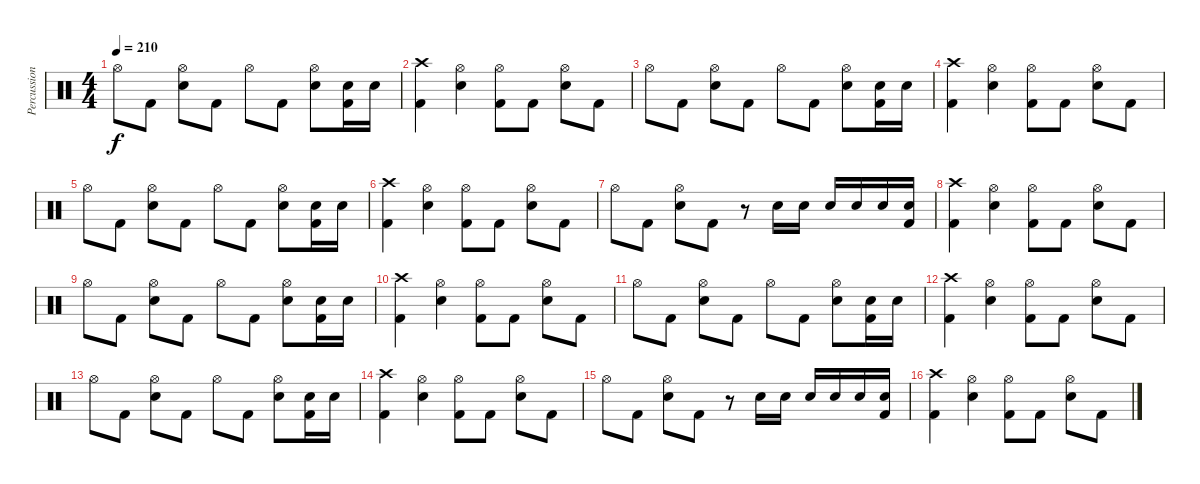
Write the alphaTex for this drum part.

\track ("Percussions" "Percussion") {instrument percussion}
\staff {score}
\articulation defaults
\ts (4 4)
\tempo 210
\clef neutral
\ks c "Hi-Hat (open)".8{dy f} "Kick (hit) 2".8
("Snare (hit) 2" "Hi-Hat (open)").8 "Kick (hit) 2".8 "Hi-Hat (open)".8 "Kick (hit) 2".8 ("Snare (hit) 2" "Hi-Hat (open)").8 ("Kick (hit) 2" "Snare (hit) 2").16 "Snare (hit) 2".16 |
("Kick (hit) 2" "Crash high (hit)").4 ("Snare (hit) 2" "Hi-Hat (open)").4 ("Kick (hit) 2" "Hi-Hat (open)").8 "Kick (hit) 2".8 ("Snare (hit) 2" "Hi-Hat (open)").8 "Kick (hit) 2".8 |
"Hi-Hat (open)".8 "Kick (hit) 2".8 ("Snare (hit) 2" "Hi-Hat (open)").8 "Kick (hit) 2".8 "Hi-Hat (open)".8 "Kick (hit) 2".8 ("Snare (hit) 2" "Hi-Hat (open)").8 ("Kick (hit) 2" "Snare (hit) 2").16 "Snare (hit) 2".16 |
("Kick (hit) 2" "Crash high (hit)").4 ("Snare (hit) 2" "Hi-Hat (open)").4 ("Kick (hit) 2" "Hi-Hat (open)").8 "Kick (hit) 2".8 ("Snare (hit) 2" "Hi-Hat (open)").8 "Kick (hit) 2".8 |
"Hi-Hat (open)".8 "Kick (hit) 2".8 ("Snare (hit) 2" "Hi-Hat (open)").8 "Kick (hit) 2".8 "Hi-Hat (open)".8 "Kick (hit) 2".8 ("Snare (hit) 2" "Hi-Hat (open)").8 ("Kick (hit) 2" "Snare (hit) 2").16 "Snare (hit) 2".16 |
("Kick (hit) 2" "Crash high (hit)").4 ("Snare (hit) 2" "Hi-Hat (open)").4 ("Kick (hit) 2" "Hi-Hat (open)").8 "Kick (hit) 2".8 ("Snare (hit) 2" "Hi-Hat (open)").8 "Kick (hit) 2".8 |
"Hi-Hat (open)".8 "Kick (hit) 2".8 ("Snare (hit) 2" "Hi-Hat (open)").8 "Kick (hit) 2".8 r.8 "Snare (hit) 2".16 "Snare (hit) 2".16 "Snare (hit) 2".16 "Snare (hit) 2".16 "Snare (hit) 2".16 ("Kick (hit) 2" "Snare (hit) 2").16 |
("Kick (hit) 2" "Crash high (hit)").4 ("Snare (hit) 2" "Hi-Hat (open)").4 ("Kick (hit) 2" "Hi-Hat (open)").8 "Kick (hit) 2".8 ("Snare (hit) 2" "Hi-Hat (open)").8 "Kick (hit) 2".8 |
"Hi-Hat (open)".8 "Kick (hit) 2".8 ("Snare (hit) 2" "Hi-Hat (open)").8 "Kick (hit) 2".8 "Hi-Hat (open)".8 "Kick (hit) 2".8 ("Snare (hit) 2" "Hi-Hat (open)").8 ("Kick (hit) 2" "Snare (hit) 2").16 "Snare (hit) 2".16 |
("Kick (hit) 2" "Crash high (hit)").4 ("Snare (hit) 2" "Hi-Hat (open)").4 ("Kick (hit) 2" "Hi-Hat (open)").8 "Kick (hit) 2".8 ("Snare (hit) 2" "Hi-Hat (open)").8 "Kick (hit) 2".8 |
"Hi-Hat (open)".8 "Kick (hit) 2".8 ("Snare (hit) 2" "Hi-Hat (open)").8 "Kick (hit) 2".8 "Hi-Hat (open)".8 "Kick (hit) 2".8 ("Snare (hit) 2" "Hi-Hat (open)").8 ("Kick (hit) 2" "Snare (hit) 2").16 "Snare (hit) 2".16 |
("Kick (hit) 2" "Crash high (hit)").4 ("Snare (hit) 2" "Hi-Hat (open)").4 ("Kick (hit) 2" "Hi-Hat (open)").8 "Kick (hit) 2".8 ("Snare (hit) 2" "Hi-Hat (open)").8 "Kick (hit) 2".8 |
"Hi-Hat (open)".8 "Kick (hit) 2".8 ("Snare (hit) 2" "Hi-Hat (open)").8 "Kick (hit) 2".8 "Hi-Hat (open)".8 "Kick (hit) 2".8 ("Snare (hit) 2" "Hi-Hat (open)").8 ("Kick (hit) 2" "Snare (hit) 2").16 "Snare (hit) 2".16 |
("Kick (hit) 2" "Crash high (hit)").4 ("Snare (hit) 2" "Hi-Hat (open)").4 ("Kick (hit) 2" "Hi-Hat (open)").8 "Kick (hit) 2".8 ("Snare (hit) 2" "Hi-Hat (open)").8 "Kick (hit) 2".8 |
"Hi-Hat (open)".8 "Kick (hit) 2".8 ("Snare (hit) 2" "Hi-Hat (open)").8 "Kick (hit) 2".8 r.8 "Snare (hit) 2".16 "Snare (hit) 2".16 "Snare (hit) 2".16 "Snare (hit) 2".16 "Snare (hit) 2".16 ("Kick (hit) 2" "Snare (hit) 2").16 |
("Kick (hit) 2" "Crash high (hit)").4 ("Snare (hit) 2" "Hi-Hat (open)").4 ("Kick (hit) 2" "Hi-Hat (open)").8 "Kick (hit) 2".8 ("Snare (hit) 2" "Hi-Hat (open)").8 "Kick (hit) 2".8
